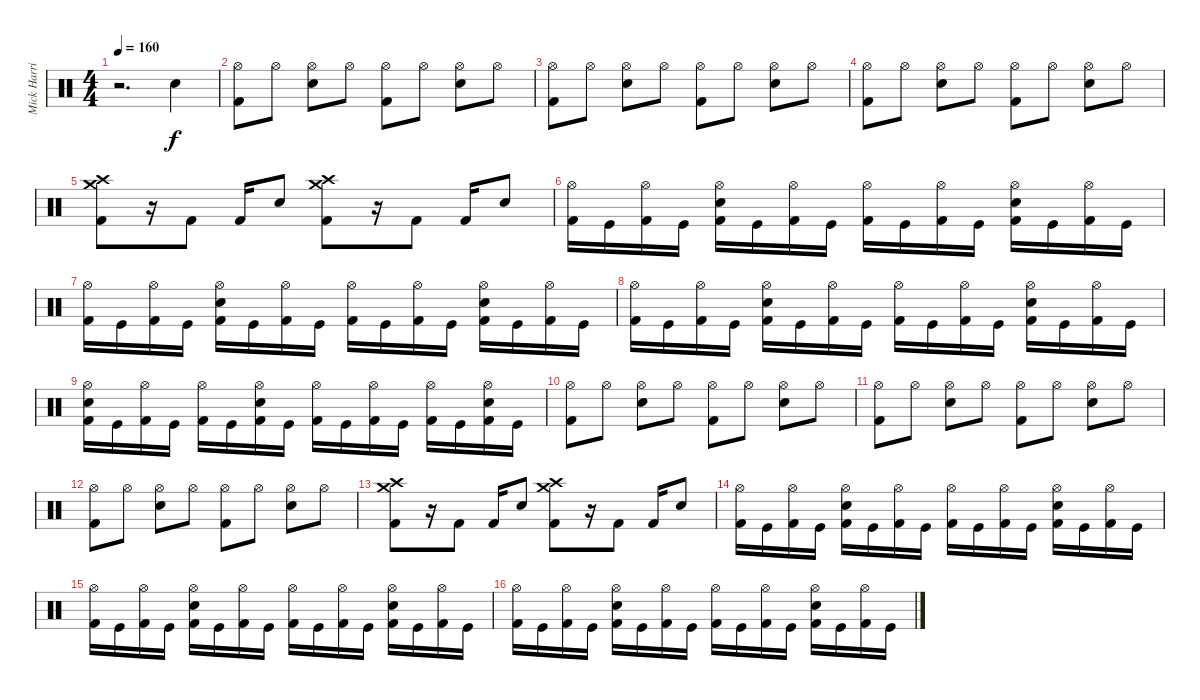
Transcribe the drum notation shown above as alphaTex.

\track ("Mick Harris (Drums)" "Mick Harri") {instrument percussion}
\staff {score}
\articulation defaults
\ts (4 4)
\tempo 160
\clef neutral
\ks c
r.2{d dy f} "Electric Snare (hit)".4 |
("Kick (hit) 2" "Hi-Hat (open)").8 "Hi-Hat (open)".8 ("Electric Snare (hit)" "Hi-Hat (open)").8 "Hi-Hat (open)".8 ("Kick (hit) 2" "Hi-Hat (open)").8 "Hi-Hat (open)".8 ("Electric Snare (hit)" "Hi-Hat (open)").8 "Hi-Hat (open)".8 |
("Kick (hit) 2" "Hi-Hat (open)").8 "Hi-Hat (open)".8 ("Electric Snare (hit)" "Hi-Hat (open)").8 "Hi-Hat (open)".8 ("Kick (hit) 2" "Hi-Hat (open)").8 "Hi-Hat (open)".8 ("Electric Snare (hit)" "Hi-Hat (open)").8 "Hi-Hat (open)".8 |
("Kick (hit) 2" "Hi-Hat (open)").8 "Hi-Hat (open)".8 ("Electric Snare (hit)" "Hi-Hat (open)").8 "Hi-Hat (open)".8 ("Kick (hit) 2" "Hi-Hat (open)").8 "Hi-Hat (open)".8 ("Electric Snare (hit)" "Hi-Hat (open)").8 "Hi-Hat (open)".8 |
("Kick (hit) 2" "Crash medium (hit)" "Crash high (hit)").8 r.16 "Kick (hit) 2".8 "Kick (hit) 2".16 "Electric Snare (hit)".8 ("Kick (hit) 2" "Crash high (hit)" "Crash medium (hit)").8 r.16 "Kick (hit) 2".8 "Kick (hit) 2".16 "Electric Snare (hit)".8 |
("Kick (hit) 2" "Hi-Hat (open)").16 "Kick (hit)".16 ("Kick (hit) 2" "Hi-Hat (open)").16 "Kick (hit)".16 ("Kick (hit) 2" "Electric Snare (hit)" "Hi-Hat (open)").16 "Kick (hit)".16 ("Kick (hit) 2" "Hi-Hat (open)").16 "Kick (hit)".16 ("Kick (hit) 2" "Hi-Hat (open)").16 "Kick (hit)".16 ("Kick (hit) 2" "Hi-Hat (open)").16 "Kick (hit)".16 ("Kick (hit) 2" "Electric Snare (hit)" "Hi-Hat (open)").16 "Kick (hit)".16 ("Kick (hit) 2" "Hi-Hat (open)").16 "Kick (hit)".16 |
("Kick (hit) 2" "Hi-Hat (open)").16 "Kick (hit)".16 ("Kick (hit) 2" "Hi-Hat (open)").16 "Kick (hit)".16 ("Kick (hit) 2" "Electric Snare (hit)" "Hi-Hat (open)").16 "Kick (hit)".16 ("Kick (hit) 2" "Hi-Hat (open)").16 "Kick (hit)".16 ("Kick (hit) 2" "Hi-Hat (open)").16 "Kick (hit)".16 ("Kick (hit) 2" "Hi-Hat (open)").16 "Kick (hit)".16 ("Kick (hit) 2" "Electric Snare (hit)" "Hi-Hat (open)").16 "Kick (hit)".16 ("Kick (hit) 2" "Hi-Hat (open)").16 "Kick (hit)".16 |
("Kick (hit) 2" "Hi-Hat (open)").16 "Kick (hit)".16 ("Kick (hit) 2" "Hi-Hat (open)").16 "Kick (hit)".16 ("Kick (hit) 2" "Electric Snare (hit)" "Hi-Hat (open)").16 "Kick (hit)".16 ("Kick (hit) 2" "Hi-Hat (open)").16 "Kick (hit)".16 ("Kick (hit) 2" "Hi-Hat (open)").16 "Kick (hit)".16 ("Kick (hit) 2" "Hi-Hat (open)").16 "Kick (hit)".16 ("Kick (hit) 2" "Electric Snare (hit)" "Hi-Hat (open)").16 "Kick (hit)".16 ("Kick (hit) 2" "Hi-Hat (open)").16 "Kick (hit)".16 |
("Kick (hit) 2" "Electric Snare (hit)" "Hi-Hat (open)").16 "Kick (hit)".16 ("Kick (hit) 2" "Hi-Hat (open)").16 "Kick (hit)".16 ("Kick (hit) 2" "Hi-Hat (open)").16 "Kick (hit)".16 ("Kick (hit) 2" "Electric Snare (hit)" "Hi-Hat (open)").16 "Kick (hit)".16 ("Kick (hit) 2" "Hi-Hat (open)").16 "Kick (hit)".16 ("Kick (hit) 2" "Hi-Hat (open)").16 "Kick (hit)".16 ("Kick (hit) 2" "Hi-Hat (open)").16 "Kick (hit)".16 ("Kick (hit) 2" "Electric Snare (hit)" "Hi-Hat (open)").16 "Kick (hit)".16 |
("Kick (hit) 2" "Hi-Hat (open)").8 "Hi-Hat (open)".8 ("Electric Snare (hit)" "Hi-Hat (open)").8 "Hi-Hat (open)".8 ("Kick (hit) 2" "Hi-Hat (open)").8 "Hi-Hat (open)".8 ("Electric Snare (hit)" "Hi-Hat (open)").8 "Hi-Hat (open)".8 |
("Kick (hit) 2" "Hi-Hat (open)").8 "Hi-Hat (open)".8 ("Electric Snare (hit)" "Hi-Hat (open)").8 "Hi-Hat (open)".8 ("Kick (hit) 2" "Hi-Hat (open)").8 "Hi-Hat (open)".8 ("Electric Snare (hit)" "Hi-Hat (open)").8 "Hi-Hat (open)".8 |
("Kick (hit) 2" "Hi-Hat (open)").8 "Hi-Hat (open)".8 ("Electric Snare (hit)" "Hi-Hat (open)").8 "Hi-Hat (open)".8 ("Kick (hit) 2" "Hi-Hat (open)").8 "Hi-Hat (open)".8 ("Electric Snare (hit)" "Hi-Hat (open)").8 "Hi-Hat (open)".8 |
("Kick (hit) 2" "Crash medium (hit)" "Crash high (hit)").8 r.16 "Kick (hit) 2".8 "Kick (hit) 2".16 "Electric Snare (hit)".8 ("Kick (hit) 2" "Crash high (hit)" "Crash medium (hit)").8 r.16 "Kick (hit) 2".8 "Kick (hit) 2".16 "Electric Snare (hit)".8 |
("Kick (hit) 2" "Hi-Hat (open)").16 "Kick (hit)".16 ("Kick (hit) 2" "Hi-Hat (open)").16 "Kick (hit)".16 ("Kick (hit) 2" "Electric Snare (hit)" "Hi-Hat (open)").16 "Kick (hit)".16 ("Kick (hit) 2" "Hi-Hat (open)").16 "Kick (hit)".16 ("Kick (hit) 2" "Hi-Hat (open)").16 "Kick (hit)".16 ("Kick (hit) 2" "Hi-Hat (open)").16 "Kick (hit)".16 ("Kick (hit) 2" "Electric Snare (hit)" "Hi-Hat (open)").16 "Kick (hit)".16 ("Kick (hit) 2" "Hi-Hat (open)").16 "Kick (hit)".16 |
("Kick (hit) 2" "Hi-Hat (open)").16 "Kick (hit)".16 ("Kick (hit) 2" "Hi-Hat (open)").16 "Kick (hit)".16 ("Kick (hit) 2" "Electric Snare (hit)" "Hi-Hat (open)").16 "Kick (hit)".16 ("Kick (hit) 2" "Hi-Hat (open)").16 "Kick (hit)".16 ("Kick (hit) 2" "Hi-Hat (open)").16 "Kick (hit)".16 ("Kick (hit) 2" "Hi-Hat (open)").16 "Kick (hit)".16 ("Kick (hit) 2" "Electric Snare (hit)" "Hi-Hat (open)").16 "Kick (hit)".16 ("Kick (hit) 2" "Hi-Hat (open)").16 "Kick (hit)".16 |
("Kick (hit) 2" "Hi-Hat (open)").16 "Kick (hit)".16 ("Kick (hit) 2" "Hi-Hat (open)").16 "Kick (hit)".16 ("Kick (hit) 2" "Electric Snare (hit)" "Hi-Hat (open)").16 "Kick (hit)".16 ("Kick (hit) 2" "Hi-Hat (open)").16 "Kick (hit)".16 ("Kick (hit) 2" "Hi-Hat (open)").16 "Kick (hit)".16 ("Kick (hit) 2" "Hi-Hat (open)").16 "Kick (hit)".16 ("Kick (hit) 2" "Electric Snare (hit)" "Hi-Hat (open)").16 "Kick (hit)".16 ("Kick (hit) 2" "Hi-Hat (open)").16 "Kick (hit)".16
